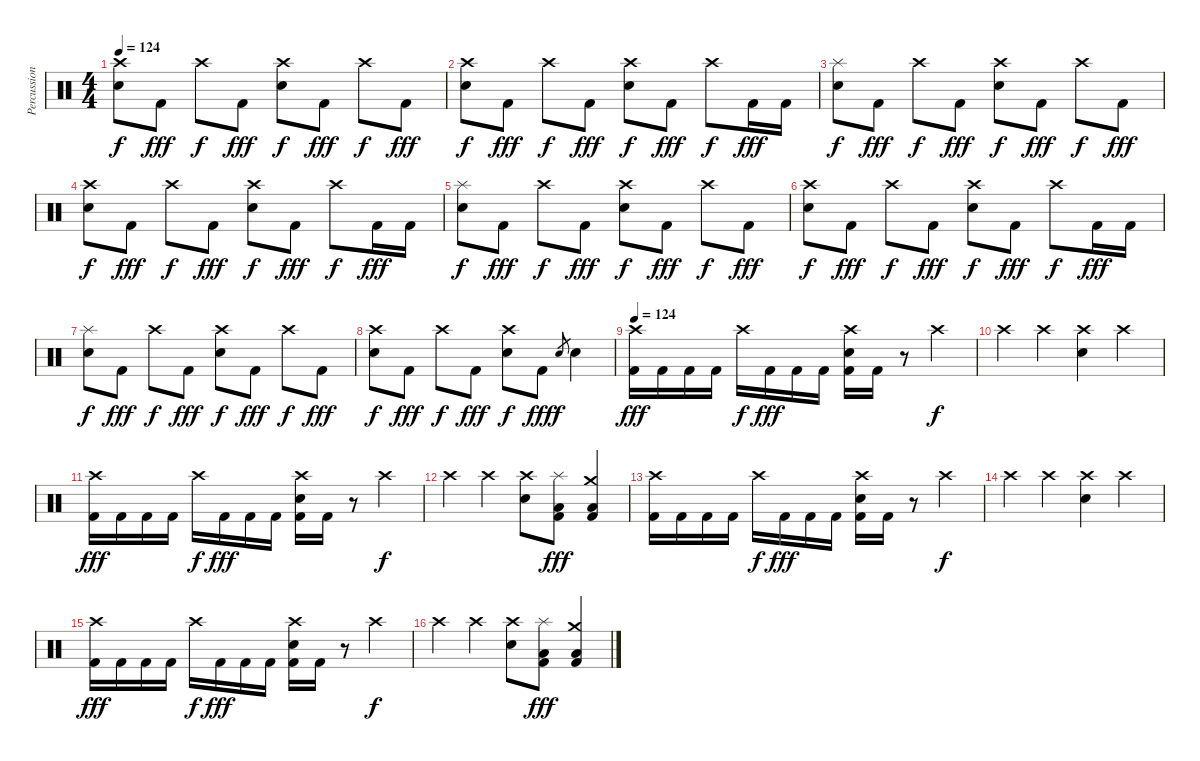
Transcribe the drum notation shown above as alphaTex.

\track ("Percussion" "Percussion") {instrument percussion}
\staff {score}
\articulation defaults
\ts (4 4)
\tempo 124
\clef neutral
\ks c
("Crash high (hit)" "Snare (hit) 2").8{dy f} "Kick (hit) 2".8{dy fff} "Crash high (hit)".8{dy f} "Kick (hit) 2".8{dy fff} ("Crash high (hit)" "Snare (hit) 2").8{dy f} "Kick (hit) 2".8{dy fff} "Crash high (hit)".8{dy f} "Kick (hit) 2".8{dy fff} |
("Crash high (hit)" "Snare (hit) 2").8{dy f} "Kick (hit) 2".8{dy fff} "Crash high (hit)".8{dy f} "Kick (hit) 2".8{dy fff} ("Crash high (hit)" "Snare (hit) 2").8{dy f} "Kick (hit) 2".8{dy fff} "Crash high (hit)".8{dy f} "Kick (hit) 2".16{dy fff} "Kick (hit) 2".16 |
("Splash (hit)" "Snare (hit) 2").8{dy f} "Kick (hit) 2".8{dy fff} "Crash high (hit)".8{dy f} "Kick (hit) 2".8{dy fff} ("Crash high (hit)" "Snare (hit) 2").8{dy f} "Kick (hit) 2".8{dy fff} "Crash high (hit)".8{dy f} "Kick (hit) 2".8{dy fff} |
("Crash high (hit)" "Snare (hit) 2").8{dy f} "Kick (hit) 2".8{dy fff} "Crash high (hit)".8{dy f} "Kick (hit) 2".8{dy fff} ("Crash high (hit)" "Snare (hit) 2").8{dy f} "Kick (hit) 2".8{dy fff} "Crash high (hit)".8{dy f} "Kick (hit) 2".16{dy fff} "Kick (hit) 2".16 |
("Splash (hit)" "Snare (hit) 2").8{dy f} "Kick (hit) 2".8{dy fff} "Crash high (hit)".8{dy f} "Kick (hit) 2".8{dy fff} ("Crash high (hit)" "Snare (hit) 2").8{dy f} "Kick (hit) 2".8{dy fff} "Crash high (hit)".8{dy f} "Kick (hit) 2".8{dy fff} |
("Crash high (hit)" "Snare (hit) 2").8{dy f} "Kick (hit) 2".8{dy fff} "Crash high (hit)".8{dy f} "Kick (hit) 2".8{dy fff} ("Crash high (hit)" "Snare (hit) 2").8{dy f} "Kick (hit) 2".8{dy fff} "Crash high (hit)".8{dy f} "Kick (hit) 2".16{dy fff} "Kick (hit) 2".16 |
("Splash (hit)" "Snare (hit) 2").8{dy f} "Kick (hit) 2".8{dy fff} "Crash high (hit)".8{dy f} "Kick (hit) 2".8{dy fff} ("Crash high (hit)" "Snare (hit) 2").8{dy f} "Kick (hit) 2".8{dy fff} "Crash high (hit)".8{dy f} "Kick (hit) 2".8{dy fff} |
("Crash high (hit)" "Snare (hit) 2").8{dy f} "Kick (hit) 2".8{dy fff} "Crash high (hit)".8{dy f} "Kick (hit) 2".8{dy fff} ("Crash high (hit)" "Snare (hit) 2").8{dy f} "Kick (hit) 2".8{dy fff} "Snare (hit) 2".8{gr dy f} "Snare (hit) 2".4 |
\tempo 124
("Crash high (hit)" "Kick (hit) 2").16{dy fff} "Kick (hit) 2".16 "Kick (hit) 2".16 "Kick (hit) 2".16 "Crash high (hit)".16{dy f} "Kick (hit) 2".16{dy fff} "Kick (hit) 2".16 "Kick (hit) 2".16 ("Crash high (hit)" "Snare (hit) 2" "Kick (hit) 2").16 "Kick (hit) 2".16 r.8 "Crash high (hit)".4{dy f} |
"Crash high (hit)".4 "Crash high (hit)".4 ("Crash high (hit)" "Snare (hit) 2").4 "Crash high (hit)".4 |
("Crash high (hit)" "Kick (hit) 2").16{dy fff} "Kick (hit) 2".16 "Kick (hit) 2".16 "Kick (hit) 2".16 "Crash high (hit)".16{dy f} "Kick (hit) 2".16{dy fff} "Kick (hit) 2".16 "Kick (hit) 2".16 ("Crash high (hit)" "Snare (hit) 2" "Kick (hit) 2").16 "Kick (hit) 2".16 r.8 "Crash high (hit)".4{dy f} |
"Crash high (hit)".4 "Crash high (hit)".4 ("Crash high (hit)" "Snare (hit) 2").8 ("Splash (hit)" "Low Tom (hit)" "Kick (hit) 2").8{dy fff} ("Crash medium (hit)" "Low Floor Tom (hit)" "Kick (hit) 2").4 |
("Crash high (hit)" "Kick (hit) 2").16 "Kick (hit) 2".16 "Kick (hit) 2".16 "Kick (hit) 2".16 "Crash high (hit)".16{dy f} "Kick (hit) 2".16{dy fff} "Kick (hit) 2".16 "Kick (hit) 2".16 ("Crash high (hit)" "Snare (hit) 2" "Kick (hit) 2").16 "Kick (hit) 2".16 r.8 "Crash high (hit)".4{dy f} |
"Crash high (hit)".4 "Crash high (hit)".4 ("Crash high (hit)" "Snare (hit) 2").4 "Crash high (hit)".4 |
("Crash high (hit)" "Kick (hit) 2").16{dy fff} "Kick (hit) 2".16 "Kick (hit) 2".16 "Kick (hit) 2".16 "Crash high (hit)".16{dy f} "Kick (hit) 2".16{dy fff} "Kick (hit) 2".16 "Kick (hit) 2".16 ("Crash high (hit)" "Snare (hit) 2" "Kick (hit) 2").16 "Kick (hit) 2".16 r.8 "Crash high (hit)".4{dy f} |
"Crash high (hit)".4 "Crash high (hit)".4 ("Crash high (hit)" "Snare (hit) 2").8 ("Splash (hit)" "Low Tom (hit)" "Kick (hit) 2").8{dy fff} ("Crash medium (hit)" "Low Floor Tom (hit)" "Kick (hit) 2").4
